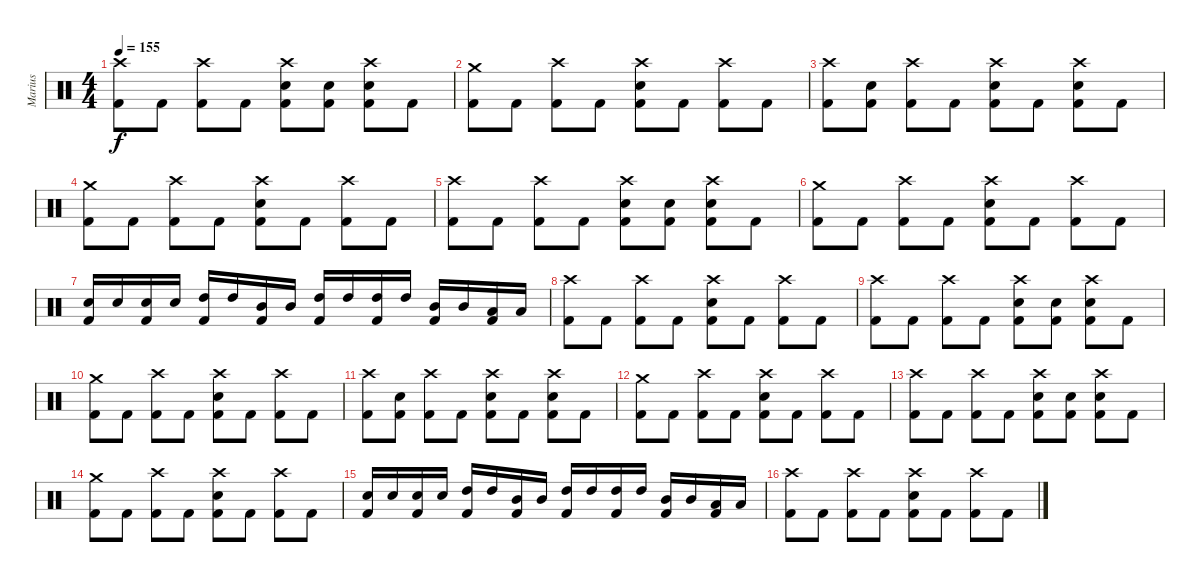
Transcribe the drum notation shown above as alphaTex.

\track ("Marius" "Marius") {instrument percussion}
\staff {score}
\articulation defaults
\ts (4 4)
\tempo 155
\clef neutral
\ks c
("Crash high (hit)" "Kick (hit) 2").8{dy f} "Kick (hit) 2".8 ("Crash high (hit)" "Kick (hit) 2").8 "Kick (hit) 2".8 ("Crash high (hit)" "Snare (hit) 2" "Kick (hit) 2").8 ("Snare (hit) 2" "Kick (hit) 2").8 ("Crash high (hit)" "Snare (hit) 2" "Kick (hit) 2").8 "Kick (hit) 2".8 |
("Crash medium (hit)" "Kick (hit) 2").8 "Kick (hit) 2".8 ("Crash high (hit)" "Kick (hit) 2").8 "Kick (hit) 2".8 ("Crash high (hit)" "Snare (hit) 2" "Kick (hit) 2").8 "Kick (hit) 2".8 ("Crash high (hit)" "Kick (hit) 2").8 "Kick (hit) 2".8 |
("Crash high (hit)" "Kick (hit) 2").8 ("Snare (hit) 2" "Kick (hit) 2").8 ("Crash high (hit)" "Kick (hit) 2").8 "Kick (hit) 2".8 ("Crash high (hit)" "Snare (hit) 2" "Kick (hit) 2").8 "Kick (hit) 2".8 ("Crash high (hit)" "Snare (hit) 2" "Kick (hit) 2").8 "Kick (hit) 2".8 |
("Crash medium (hit)" "Kick (hit) 2").8 "Kick (hit) 2".8 ("Crash high (hit)" "Kick (hit) 2").8 "Kick (hit) 2".8 ("Crash high (hit)" "Snare (hit) 2" "Kick (hit) 2").8 "Kick (hit) 2".8 ("Crash high (hit)" "Kick (hit) 2").8 "Kick (hit) 2".8 |
("Crash high (hit)" "Kick (hit) 2").8 "Kick (hit) 2".8 ("Crash high (hit)" "Kick (hit) 2").8 "Kick (hit) 2".8 ("Crash high (hit)" "Snare (hit) 2" "Kick (hit) 2").8 ("Snare (hit) 2" "Kick (hit) 2").8 ("Crash high (hit)" "Snare (hit) 2" "Kick (hit) 2").8 "Kick (hit) 2".8 |
("Crash medium (hit)" "Kick (hit) 2").8 "Kick (hit) 2".8 ("Crash high (hit)" "Kick (hit) 2").8 "Kick (hit) 2".8 ("Crash high (hit)" "Snare (hit) 2" "Kick (hit) 2").8 "Kick (hit) 2".8 ("Crash high (hit)" "Kick (hit) 2").8 "Kick (hit) 2".8 |
("Snare (hit) 2" "Kick (hit) 2").16 "Snare (hit) 2".16 ("Snare (hit) 2" "Kick (hit) 2").16 "Snare (hit) 2".16 ("High Tom (hit)" "Kick (hit) 2").16 "High Tom (hit)".16 ("Mid Tom (hit)" "Kick (hit) 2").16 "Mid Tom (hit)".16 ("High Tom (hit)" "Kick (hit) 2").16 "High Tom (hit)".16 ("High Tom (hit)" "Kick (hit) 2").16 "High Tom (hit)".16 ("Mid Tom (hit)" "Kick (hit) 2").16 "Mid Tom (hit)".16 ("Low Tom (hit)" "Kick (hit) 2").16 "Low Tom (hit)".16 |
("Crash high (hit)" "Kick (hit) 2").8 "Kick (hit) 2".8 ("Crash high (hit)" "Kick (hit) 2").8 "Kick (hit) 2".8 ("Crash high (hit)" "Snare (hit) 2" "Kick (hit) 2").8 "Kick (hit) 2".8 ("Crash high (hit)" "Kick (hit) 2").8 "Kick (hit) 2".8 |
("Crash high (hit)" "Kick (hit) 2").8 "Kick (hit) 2".8 ("Crash high (hit)" "Kick (hit) 2").8 "Kick (hit) 2".8 ("Crash high (hit)" "Snare (hit) 2" "Kick (hit) 2").8 ("Snare (hit) 2" "Kick (hit) 2").8 ("Crash high (hit)" "Snare (hit) 2" "Kick (hit) 2").8 "Kick (hit) 2".8 |
("Crash medium (hit)" "Kick (hit) 2").8 "Kick (hit) 2".8 ("Crash high (hit)" "Kick (hit) 2").8 "Kick (hit) 2".8 ("Crash high (hit)" "Snare (hit) 2" "Kick (hit) 2").8 "Kick (hit) 2".8 ("Crash high (hit)" "Kick (hit) 2").8 "Kick (hit) 2".8 |
("Crash high (hit)" "Kick (hit) 2").8 ("Snare (hit) 2" "Kick (hit) 2").8 ("Crash high (hit)" "Kick (hit) 2").8 "Kick (hit) 2".8 ("Crash high (hit)" "Snare (hit) 2" "Kick (hit) 2").8 "Kick (hit) 2".8 ("Crash high (hit)" "Snare (hit) 2" "Kick (hit) 2").8 "Kick (hit) 2".8 |
("Crash medium (hit)" "Kick (hit) 2").8 "Kick (hit) 2".8 ("Crash high (hit)" "Kick (hit) 2").8 "Kick (hit) 2".8 ("Crash high (hit)" "Snare (hit) 2" "Kick (hit) 2").8 "Kick (hit) 2".8 ("Crash high (hit)" "Kick (hit) 2").8 "Kick (hit) 2".8 |
("Crash high (hit)" "Kick (hit) 2").8 "Kick (hit) 2".8 ("Crash high (hit)" "Kick (hit) 2").8 "Kick (hit) 2".8 ("Crash high (hit)" "Snare (hit) 2" "Kick (hit) 2").8 ("Snare (hit) 2" "Kick (hit) 2").8 ("Crash high (hit)" "Snare (hit) 2" "Kick (hit) 2").8 "Kick (hit) 2".8 |
("Crash medium (hit)" "Kick (hit) 2").8 "Kick (hit) 2".8 ("Crash high (hit)" "Kick (hit) 2").8 "Kick (hit) 2".8 ("Crash high (hit)" "Snare (hit) 2" "Kick (hit) 2").8 "Kick (hit) 2".8 ("Crash high (hit)" "Kick (hit) 2").8 "Kick (hit) 2".8 |
("Snare (hit) 2" "Kick (hit) 2").16 "Snare (hit) 2".16 ("Snare (hit) 2" "Kick (hit) 2").16 "Snare (hit) 2".16 ("High Tom (hit)" "Kick (hit) 2").16 "High Tom (hit)".16 ("Mid Tom (hit)" "Kick (hit) 2").16 "Mid Tom (hit)".16 ("High Tom (hit)" "Kick (hit) 2").16 "High Tom (hit)".16 ("High Tom (hit)" "Kick (hit) 2").16 "High Tom (hit)".16 ("Mid Tom (hit)" "Kick (hit) 2").16 "Mid Tom (hit)".16 ("Low Tom (hit)" "Kick (hit) 2").16 "Low Tom (hit)".16 |
("Crash high (hit)" "Kick (hit) 2").8 "Kick (hit) 2".8 ("Crash high (hit)" "Kick (hit) 2").8 "Kick (hit) 2".8 ("Crash high (hit)" "Snare (hit) 2" "Kick (hit) 2").8 "Kick (hit) 2".8 ("Crash high (hit)" "Kick (hit) 2").8 "Kick (hit) 2".8
